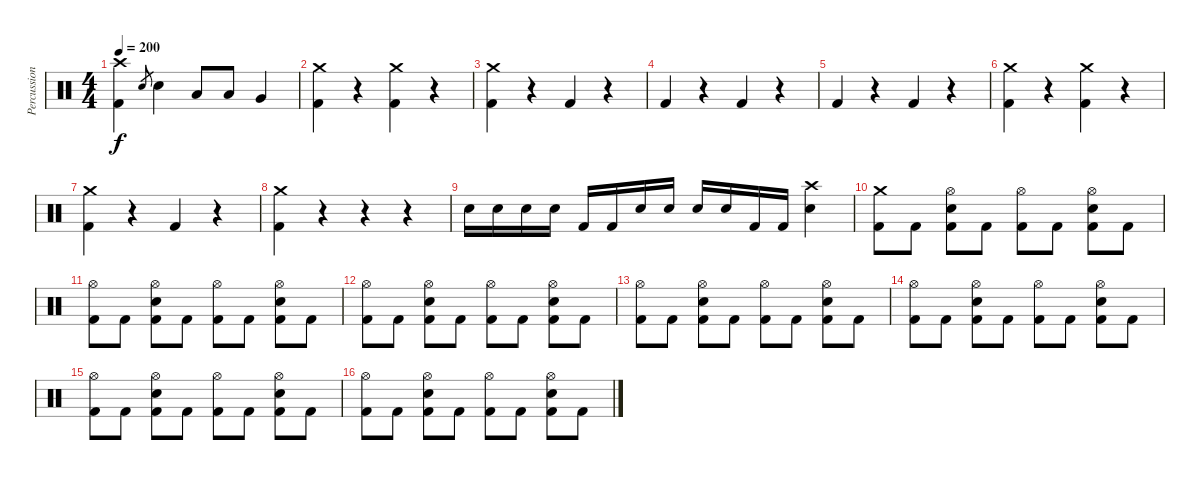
\track ("Percussion" "Percussion") {instrument percussion}
\staff {score}
\articulation defaults
\ts (4 4)
\tempo 200
\clef neutral
\ks c
("Crash high (hit)" "Kick (hit) 2").4{dy f volume 16} "Electric Snare (hit)".8{gr} "Electric Snare (hit)".4 "Low Tom (hit)".8 "Low Tom (hit)".8 "Very Low Tom (hit)".4 |
("Crash medium (hit)" "Kick (hit) 2").4 r.4 ("Crash medium (hit)" "Kick (hit) 2").4 r.4 |
("Crash medium (hit)" "Kick (hit) 2").4 r.4 "Kick (hit) 2".4 r.4 |
"Kick (hit) 2".4 r.4 "Kick (hit) 2".4 r.4 |
"Kick (hit) 2".4 r.4 "Kick (hit) 2".4 r.4 |
("Crash medium (hit)" "Kick (hit) 2").4 r.4 ("Crash medium (hit)" "Kick (hit) 2").4 r.4 |
("Crash medium (hit)" "Kick (hit) 2").4 r.4 "Kick (hit) 2".4 r.4 |
("Crash medium (hit)" "Kick (hit) 2").4 r.4{volume 0} r.4 r.4 |
"Electric Snare (hit)".16{volume 13} "Electric Snare (hit)".16 "Electric Snare (hit)".16 "Electric Snare (hit)".16 "Kick (hit) 2".16 "Kick (hit) 2".16 "Electric Snare (hit)".16 "Electric Snare (hit)".16 "Electric Snare (hit)".16 "Electric Snare (hit)".16 "Kick (hit) 2".16 "Kick (hit) 2".16 ("Crash high (hit)" "Electric Snare (hit)").4 |
("Crash medium (hit)" "Kick (hit) 2").8 "Kick (hit) 2".8 ("Hi-Hat (open)" "Electric Snare (hit)" "Kick (hit) 2").8 "Kick (hit) 2".8 ("Hi-Hat (open)" "Kick (hit) 2").8 "Kick (hit) 2".8 ("Hi-Hat (open)" "Electric Snare (hit)" "Kick (hit) 2").8 "Kick (hit) 2".8 |
("Hi-Hat (open)" "Kick (hit) 2").8 "Kick (hit) 2".8 ("Hi-Hat (open)" "Electric Snare (hit)" "Kick (hit) 2").8 "Kick (hit) 2".8 ("Hi-Hat (open)" "Kick (hit) 2").8 "Kick (hit) 2".8 ("Hi-Hat (open)" "Electric Snare (hit)" "Kick (hit) 2").8 "Kick (hit) 2".8 |
("Hi-Hat (open)" "Kick (hit) 2").8 "Kick (hit) 2".8 ("Hi-Hat (open)" "Electric Snare (hit)" "Kick (hit) 2").8 "Kick (hit) 2".8 ("Hi-Hat (open)" "Kick (hit) 2").8 "Kick (hit) 2".8 ("Hi-Hat (open)" "Electric Snare (hit)" "Kick (hit) 2").8 "Kick (hit) 2".8 |
("Hi-Hat (open)" "Kick (hit) 2").8 "Kick (hit) 2".8 ("Hi-Hat (open)" "Electric Snare (hit)" "Kick (hit) 2").8 "Kick (hit) 2".8 ("Hi-Hat (open)" "Kick (hit) 2").8 "Kick (hit) 2".8 ("Hi-Hat (open)" "Electric Snare (hit)" "Kick (hit) 2").8 "Kick (hit) 2".8 |
("Hi-Hat (open)" "Kick (hit) 2").8 "Kick (hit) 2".8 ("Hi-Hat (open)" "Electric Snare (hit)" "Kick (hit) 2").8 "Kick (hit) 2".8 ("Hi-Hat (open)" "Kick (hit) 2").8 "Kick (hit) 2".8 ("Hi-Hat (open)" "Electric Snare (hit)" "Kick (hit) 2").8 "Kick (hit) 2".8 |
("Hi-Hat (open)" "Kick (hit) 2").8 "Kick (hit) 2".8 ("Hi-Hat (open)" "Electric Snare (hit)" "Kick (hit) 2").8 "Kick (hit) 2".8 ("Hi-Hat (open)" "Kick (hit) 2").8 "Kick (hit) 2".8 ("Hi-Hat (open)" "Electric Snare (hit)" "Kick (hit) 2").8 "Kick (hit) 2".8 |
("Hi-Hat (open)" "Kick (hit) 2").8 "Kick (hit) 2".8 ("Hi-Hat (open)" "Electric Snare (hit)" "Kick (hit) 2").8 "Kick (hit) 2".8 ("Hi-Hat (open)" "Kick (hit) 2").8 "Kick (hit) 2".8 ("Hi-Hat (open)" "Electric Snare (hit)" "Kick (hit) 2").8 "Kick (hit) 2".8
